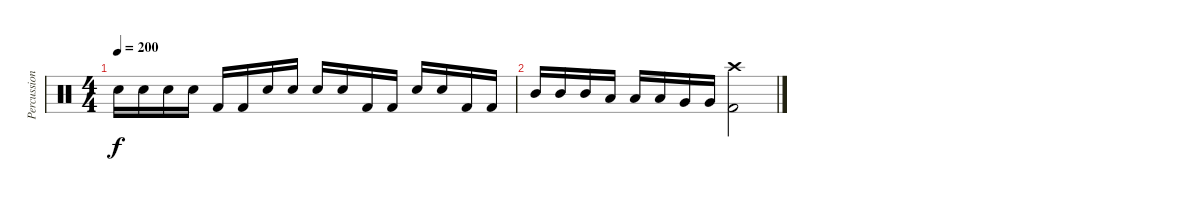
\track ("Percussion" "Percussion") {instrument percussion}
\staff {score}
\articulation defaults
\ts (4 4)
\tempo 200
\clef neutral
\ks c "Electric Snare (hit)".16{dy f} "Electric Snare (hit)".16 "Electric Snare (hit)".16 "Electric Snare (hit)".16 "Kick (hit) 2".16 "Kick (hit) 2".16 "Electric Snare (hit)".16 "Electric Snare (hit)".16 "Electric Snare (hit)".16 "Electric Snare (hit)".16 "Kick (hit) 2".16 "Kick (hit) 2".16 "Electric Snare (hit)".16 "Electric Snare (hit)".16 "Kick (hit) 2".16 "Kick (hit) 2".16
|
"Mid Tom (hit)".16 "Mid Tom (hit)".16 "Mid Tom (hit)".16 "Low Tom (hit)".16 "Low Tom (hit)".16 "Low Tom (hit)".16 "Very Low Tom (hit)".16 "Very Low Tom (hit)".16 ("Crash high (hit)" "Kick (hit) 2").2
